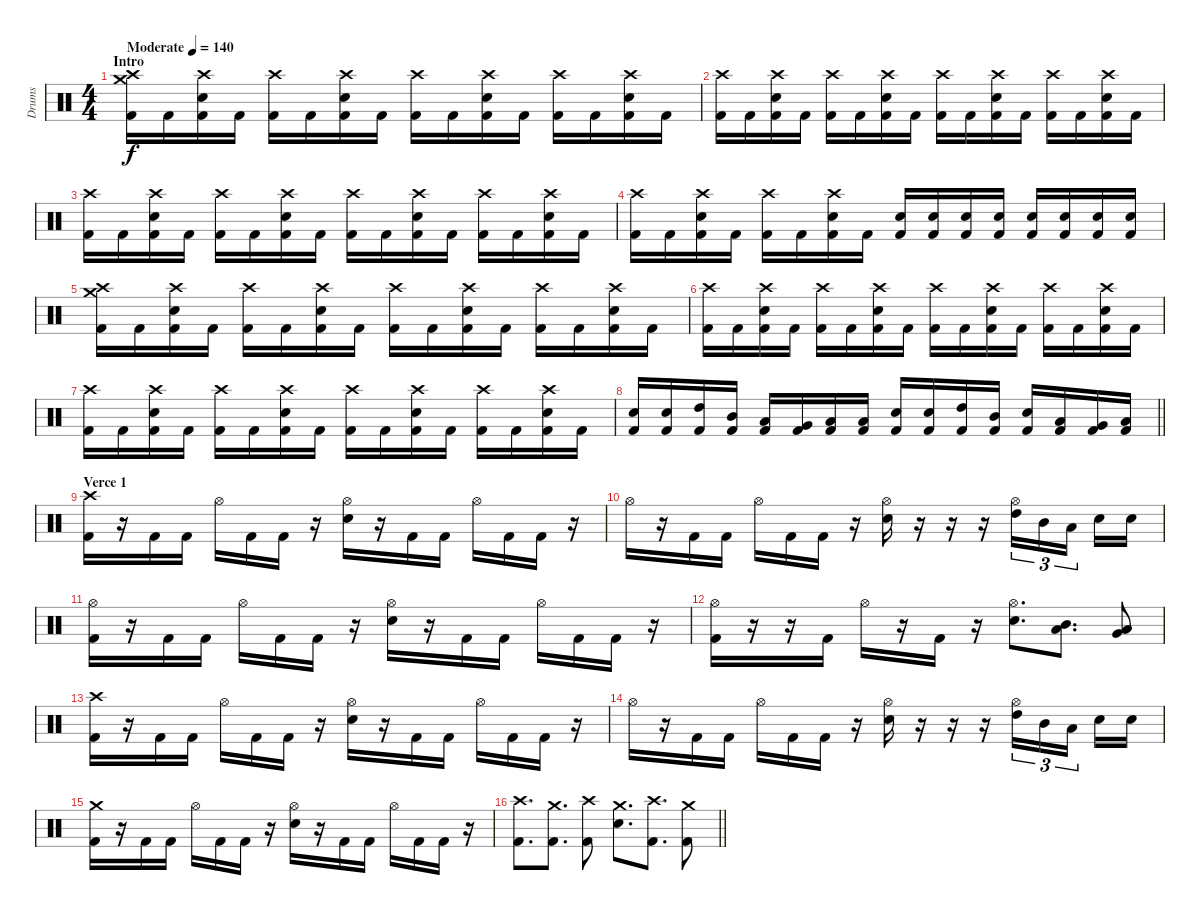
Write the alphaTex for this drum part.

\track ("Drums" "Drums") {instrument percussion}
\staff {score}
\articulation defaults
\ts (4 4)
\section ("" "Intro")
\tempo (140 "Moderate")
\clef neutral
\ks c
("Crash high (hit)" "Crash medium (hit)" "Kick (hit) 2").16{dy f} "Kick (hit) 2".16 ("Crash high (hit)" "Electric Snare (hit)" "Kick (hit) 2").16 "Kick (hit) 2".16 ("Crash high (hit)" "Kick (hit) 2").16 "Kick (hit) 2".16 ("Crash high (hit)" "Electric Snare (hit)" "Kick (hit) 2").16 "Kick (hit) 2".16 ("Crash high (hit)" "Kick (hit) 2").16 "Kick (hit) 2".16 ("Crash high (hit)" "Electric Snare (hit)" "Kick (hit) 2").16 "Kick (hit) 2".16 ("Crash high (hit)" "Kick (hit) 2").16 "Kick (hit) 2".16 ("Crash high (hit)" "Electric Snare (hit)" "Kick (hit) 2").16 "Kick (hit) 2".16 |
("Crash high (hit)" "Kick (hit) 2").16 "Kick (hit) 2".16 ("Crash high (hit)" "Electric Snare (hit)" "Kick (hit) 2").16 "Kick (hit) 2".16 ("Crash high (hit)" "Kick (hit) 2").16 "Kick (hit) 2".16 ("Crash high (hit)" "Electric Snare (hit)" "Kick (hit) 2").16 "Kick (hit) 2".16 ("Crash high (hit)" "Kick (hit) 2").16 "Kick (hit) 2".16 ("Crash high (hit)" "Electric Snare (hit)" "Kick (hit) 2").16 "Kick (hit) 2".16 ("Crash high (hit)" "Kick (hit) 2").16 "Kick (hit) 2".16 ("Crash high (hit)" "Electric Snare (hit)" "Kick (hit) 2").16 "Kick (hit) 2".16 |
("Crash high (hit)" "Kick (hit) 2").16 "Kick (hit) 2".16 ("Crash high (hit)" "Electric Snare (hit)" "Kick (hit) 2").16 "Kick (hit) 2".16 ("Crash high (hit)" "Kick (hit) 2").16 "Kick (hit) 2".16 ("Crash high (hit)" "Electric Snare (hit)" "Kick (hit) 2").16 "Kick (hit) 2".16 ("Crash high (hit)" "Kick (hit) 2").16 "Kick (hit) 2".16 ("Crash high (hit)" "Electric Snare (hit)" "Kick (hit) 2").16 "Kick (hit) 2".16 ("Crash high (hit)" "Kick (hit) 2").16 "Kick (hit) 2".16 ("Crash high (hit)" "Electric Snare (hit)" "Kick (hit) 2").16 "Kick (hit) 2".16 |
("Crash high (hit)" "Kick (hit) 2").16 "Kick (hit) 2".16 ("Crash high (hit)" "Electric Snare (hit)" "Kick (hit) 2").16 "Kick (hit) 2".16 ("Crash high (hit)" "Kick (hit) 2").16 "Kick (hit) 2".16 ("Crash high (hit)" "Electric Snare (hit)" "Kick (hit) 2").16 "Kick (hit) 2".16 ("Electric Snare (hit)" "Kick (hit) 2").16 ("Electric Snare (hit)" "Kick (hit) 2").16 ("Electric Snare (hit)" "Kick (hit) 2").16 ("Electric Snare (hit)" "Kick (hit) 2").16 ("Electric Snare (hit)" "Kick (hit) 2").16 ("Electric Snare (hit)" "Kick (hit) 2").16 ("Electric Snare (hit)" "Kick (hit) 2").16 ("Electric Snare (hit)" "Kick (hit) 2").16 |
("Crash high (hit)" "Crash medium (hit)" "Kick (hit) 2").16 "Kick (hit) 2".16 ("Crash high (hit)" "Electric Snare (hit)" "Kick (hit) 2").16 "Kick (hit) 2".16 ("Crash high (hit)" "Kick (hit) 2").16 "Kick (hit) 2".16 ("Crash high (hit)" "Electric Snare (hit)" "Kick (hit) 2").16 "Kick (hit) 2".16 ("Crash high (hit)" "Kick (hit) 2").16 "Kick (hit) 2".16 ("Crash high (hit)" "Electric Snare (hit)" "Kick (hit) 2").16 "Kick (hit) 2".16 ("Crash high (hit)" "Kick (hit) 2").16 "Kick (hit) 2".16 ("Crash high (hit)" "Electric Snare (hit)" "Kick (hit) 2").16 "Kick (hit) 2".16 |
("Crash high (hit)" "Kick (hit) 2").16 "Kick (hit) 2".16 ("Crash high (hit)" "Electric Snare (hit)" "Kick (hit) 2").16 "Kick (hit) 2".16 ("Crash high (hit)" "Kick (hit) 2").16 "Kick (hit) 2".16 ("Crash high (hit)" "Electric Snare (hit)" "Kick (hit) 2").16 "Kick (hit) 2".16 ("Crash high (hit)" "Kick (hit) 2").16 "Kick (hit) 2".16 ("Crash high (hit)" "Electric Snare (hit)" "Kick (hit) 2").16 "Kick (hit) 2".16 ("Crash high (hit)" "Kick (hit) 2").16 "Kick (hit) 2".16 ("Crash high (hit)" "Electric Snare (hit)" "Kick (hit) 2").16 "Kick (hit) 2".16 |
("Crash high (hit)" "Kick (hit) 2").16 "Kick (hit) 2".16 ("Crash high (hit)" "Electric Snare (hit)" "Kick (hit) 2").16 "Kick (hit) 2".16 ("Crash high (hit)" "Kick (hit) 2").16 "Kick (hit) 2".16 ("Crash high (hit)" "Electric Snare (hit)" "Kick (hit) 2").16 "Kick (hit) 2".16 ("Crash high (hit)" "Kick (hit) 2").16 "Kick (hit) 2".16 ("Crash high (hit)" "Electric Snare (hit)" "Kick (hit) 2").16 "Kick (hit) 2".16 ("Crash high (hit)" "Kick (hit) 2").16 "Kick (hit) 2".16 ("Crash high (hit)" "Electric Snare (hit)" "Kick (hit) 2").16 "Kick (hit) 2".16 |
\barLineRight lightlight
("Electric Snare (hit)" "Kick (hit) 2").16 ("Electric Snare (hit)" "Kick (hit) 2").16 ("High Tom (hit)" "Kick (hit) 2").16 ("Mid Tom (hit)" "Kick (hit) 2").16 ("Low Tom (hit)" "Kick (hit) 2").16 ("Very Low Tom (hit)" "Kick (hit) 2").16 ("Low Floor Tom (hit)" "Kick (hit) 2").16 ("Low Floor Tom (hit)" "Kick (hit) 2").16 ("Electric Snare (hit)" "Kick (hit) 2").16 ("Electric Snare (hit)" "Kick (hit) 2").16 ("High Tom (hit)" "Kick (hit) 2").16 ("Mid Tom (hit)" "Kick (hit) 2").16 ("Electric Snare (hit)" "Kick (hit) 2").16 ("Low Tom (hit)" "Kick (hit) 2").16 ("Very Low Tom (hit)" "Kick (hit) 2").16 ("Low Floor Tom (hit)" "Kick (hit) 2").16 |
\section ("" "Verce 1")
("Crash high (hit)" "Kick (hit) 2").16 r.16 "Kick (hit) 2".16 "Kick (hit) 2".16 "Hi-Hat (open)".16 "Kick (hit) 2".16 "Kick (hit) 2".16 r.16 ("Hi-Hat (open)" "Electric Snare (hit)").16 r.16 "Kick (hit) 2".16 "Kick (hit) 2".16 "Hi-Hat (open)".16 "Kick (hit) 2".16 "Kick (hit) 2".16 r.16 |
"Hi-Hat (open)".16 r.16 "Kick (hit) 2".16 "Kick (hit) 2".16 "Hi-Hat (open)".16 "Kick (hit) 2".16 "Kick (hit) 2".16 r.16 ("Hi-Hat (open)" "Electric Snare (hit)").16 r.16 r.16 r.16 ("Hi-Hat (open)" "High Tom (hit)").16{tu (3 2)} "Mid Tom (hit)".16{tu (3 2)} "Low Tom (hit)".16{tu (3 2) beam splitsecondary} "Electric Snare (hit)".16 "Electric Snare (hit)".16 |
("Hi-Hat (open)" "Kick (hit) 2").16 r.16 "Kick (hit) 2".16 "Kick (hit) 2".16 "Hi-Hat (open)".16 "Kick (hit) 2".16 "Kick (hit) 2".16 r.16 ("Hi-Hat (open)" "Electric Snare (hit)").16 r.16 "Kick (hit) 2".16 "Kick (hit) 2".16 "Hi-Hat (open)".16 "Kick (hit) 2".16 "Kick (hit) 2".16 r.16 |
("Hi-Hat (open)" "Kick (hit) 2").16 r.16 r.16 "Kick (hit) 2".16 "Hi-Hat (open)".16 r.16 "Kick (hit) 2".16 r.16 ("Hi-Hat (open)" "Electric Snare (hit)").8{d} ("Mid Tom (hit)" "Low Tom (hit)").8{d} ("Very Low Tom (hit)" "Low Floor Tom (hit)").8 |
("Crash high (hit)" "Kick (hit) 2").16 r.16 "Kick (hit) 2".16 "Kick (hit) 2".16 "Hi-Hat (open)".16 "Kick (hit) 2".16 "Kick (hit) 2".16 r.16 ("Hi-Hat (open)" "Electric Snare (hit)").16 r.16 "Kick (hit) 2".16 "Kick (hit) 2".16 "Hi-Hat (open)".16 "Kick (hit) 2".16 "Kick (hit) 2".16 r.16 |
"Hi-Hat (open)".16 r.16 "Kick (hit) 2".16 "Kick (hit) 2".16 "Hi-Hat (open)".16 "Kick (hit) 2".16 "Kick (hit) 2".16 r.16 ("Hi-Hat (open)" "Electric Snare (hit)").16 r.16 r.16 r.16 ("Hi-Hat (open)" "High Tom (hit)").16{tu (3 2)} "Mid Tom (hit)".16{tu (3 2)} "Low Tom (hit)".16{tu (3 2) beam splitsecondary} "Electric Snare (hit)".16 "Electric Snare (hit)".16 |
("Crash medium (hit)" "Kick (hit) 2").16 r.16 "Kick (hit) 2".16 "Kick (hit) 2".16 "Hi-Hat (open)".16 "Kick (hit) 2".16 "Kick (hit) 2".16 r.16 ("Hi-Hat (open)" "Electric Snare (hit)").16 r.16 "Kick (hit) 2".16 "Kick (hit) 2".16 "Hi-Hat (open)".16 "Kick (hit) 2".16 "Kick (hit) 2".16 r.16 |
\barLineRight lightlight
("Crash high (hit)" "Kick (hit) 2").8{d} ("Crash medium (hit)" "Kick (hit) 2").8{d} ("Crash high (hit)" "Kick (hit) 2").8 ("Crash medium (hit)" "Electric Snare (hit)").8{d} ("Crash high (hit)" "Kick (hit) 2").8{d} ("Crash medium (hit)" "Kick (hit) 2").8
